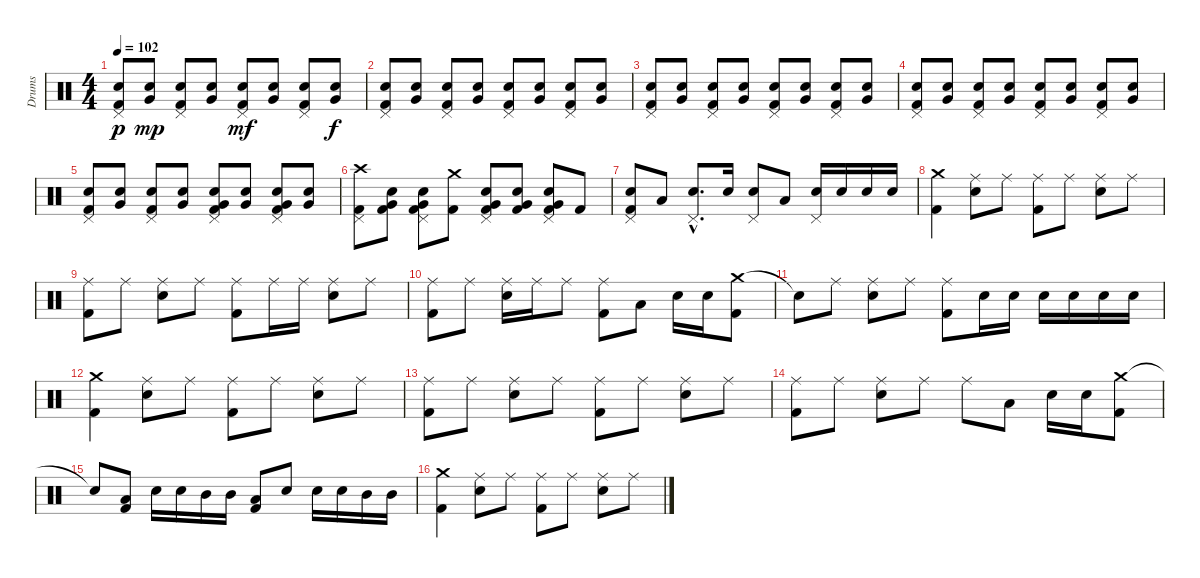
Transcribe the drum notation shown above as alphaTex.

\track ("Drums" "Drums") {instrument percussion}
\staff {score}
\articulation defaults
\ts (4 4)
\tempo 102
\clef neutral
\ks c
("Pedal Hi-Hat (hit)" "Snare (hit) 2" "Kick (hit) 2").8{dy p} ("Snare (hit) 2" "Very Low Tom (hit)").8{dy mp} ("Pedal Hi-Hat (hit)" "Snare (hit) 2" "Kick (hit) 2").8 ("Snare (hit) 2" "Very Low Tom (hit)").8 ("Pedal Hi-Hat (hit)" "Snare (hit) 2" "Kick (hit) 2").8{dy mf} ("Snare (hit) 2" "Very Low Tom (hit)").8 ("Pedal Hi-Hat (hit)" "Snare (hit) 2" "Kick (hit) 2").8 ("Snare (hit) 2" "Very Low Tom (hit)").8{dy f} |
("Pedal Hi-Hat (hit)" "Snare (hit) 2" "Kick (hit) 2").8 ("Snare (hit) 2" "Very Low Tom (hit)").8 ("Pedal Hi-Hat (hit)" "Snare (hit) 2" "Kick (hit) 2").8 ("Snare (hit) 2" "Very Low Tom (hit)").8 ("Pedal Hi-Hat (hit)" "Snare (hit) 2" "Kick (hit) 2").8 ("Snare (hit) 2" "Very Low Tom (hit)").8 ("Pedal Hi-Hat (hit)" "Snare (hit) 2" "Kick (hit) 2").8 ("Snare (hit) 2" "Very Low Tom (hit)").8 |
("Pedal Hi-Hat (hit)" "Snare (hit) 2" "Kick (hit) 2").8 ("Snare (hit) 2" "Very Low Tom (hit)").8 ("Pedal Hi-Hat (hit)" "Snare (hit) 2" "Kick (hit) 2").8 ("Snare (hit) 2" "Very Low Tom (hit)").8 ("Pedal Hi-Hat (hit)" "Snare (hit) 2" "Kick (hit) 2").8 ("Snare (hit) 2" "Very Low Tom (hit)").8 ("Pedal Hi-Hat (hit)" "Snare (hit) 2" "Kick (hit) 2").8 ("Snare (hit) 2" "Very Low Tom (hit)").8 |
("Pedal Hi-Hat (hit)" "Snare (hit) 2" "Kick (hit) 2").8 ("Snare (hit) 2" "Very Low Tom (hit)").8 ("Pedal Hi-Hat (hit)" "Snare (hit) 2" "Kick (hit) 2").8 ("Snare (hit) 2" "Very Low Tom (hit)").8 ("Pedal Hi-Hat (hit)" "Snare (hit) 2" "Kick (hit) 2").8 ("Snare (hit) 2" "Very Low Tom (hit)").8 ("Pedal Hi-Hat (hit)" "Snare (hit) 2" "Kick (hit) 2").8 ("Snare (hit) 2" "Very Low Tom (hit)").8 |
("Pedal Hi-Hat (hit)" "Snare (hit) 2" "Kick (hit) 2").8 ("Snare (hit) 2" "Very Low Tom (hit)").8 ("Pedal Hi-Hat (hit)" "Snare (hit) 2" "Kick (hit) 2").8 ("Snare (hit) 2" "Very Low Tom (hit)").8 ("Pedal Hi-Hat (hit)" "Snare (hit) 2" "Very Low Tom (hit)" "Kick (hit) 2").8 ("Snare (hit) 2" "Very Low Tom (hit)").8 ("Pedal Hi-Hat (hit)" "Snare (hit) 2" "Very Low Tom (hit)" "Kick (hit) 2").8 ("Snare (hit) 2" "Very Low Tom (hit)").8 |
("Crash high (hit)" "Pedal Hi-Hat (hit)" "Kick (hit) 2").8 ("Snare (hit) 2" "Very Low Tom (hit)" "Kick (hit) 2").8 ("Pedal Hi-Hat (hit)" "Snare (hit) 2" "Very Low Tom (hit)" "Kick (hit) 2").8 ("Crash medium (hit)" "Kick (hit) 2").8 ("Pedal Hi-Hat (hit)" "Snare (hit) 2" "Very Low Tom (hit)" "Kick (hit) 2").8 ("Snare (hit) 2" "Very Low Tom (hit)" "Kick (hit) 2").8 ("Pedal Hi-Hat (hit)" "Snare (hit) 2" "Very Low Tom (hit)" "Kick (hit) 2").8 "Kick (hit) 2".8 |
("Pedal Hi-Hat (hit)" "Snare (hit) 2" "Kick (hit) 2").8 "Low Tom (hit)".8 ("Pedal Hi-Hat (hit)"{hac} "Snare (hit) 2"{hac}).8{d} "Snare (hit) 2".16 ("Pedal Hi-Hat (hit)" "Snare (hit) 2").8 "Low Tom (hit)".8 ("Pedal Hi-Hat (hit)" "Snare (hit) 2").16 "Snare (hit) 2".16 "Snare (hit) 2".16 "Snare (hit) 2".16 |
("Crash medium (hit)" "Kick (hit) 2").4 ("Ride (middle)" "Snare (hit) 2").8 "Ride (middle)".8 ("Ride (middle)" "Kick (hit) 2").8 "Ride (middle)".8 ("Ride (middle)" "Snare (hit) 2").8 "Ride (middle)".8 |
("Ride (middle)" "Kick (hit) 2").8 "Ride (middle)".8 ("Ride (middle)" "Snare (hit) 2").8 "Ride (middle)".8 ("Ride (middle)" "Kick (hit) 2").8 "Ride (middle)".16 "Ride (middle)".16 ("Ride (middle)" "Snare (hit) 2").8 "Ride (middle)".8 |
("Ride (middle)" "Kick (hit) 2").8 "Ride (middle)".8 ("Ride (middle)" "Snare (hit) 2").16 "Ride (middle)".16 "Ride (middle)".8 ("Ride (middle)" "Kick (hit) 2").8 "Low Tom (hit)".8 "Snare (hit) 2".16 "Snare (hit) 2".16 ("Crash medium (hit)" "Kick (hit) 2").8 |
"Snare (hit)"{t}.8 "Ride (middle)".8 ("Ride (middle)" "Snare (hit) 2").8 "Ride (middle)".8 ("Ride (middle)" "Kick (hit) 2").8 "Snare (hit) 2".16 "Snare (hit) 2".16 "Snare (hit) 2".16 "Snare (hit) 2".16 "Snare (hit) 2".16 "Snare (hit) 2".16 |
("Crash medium (hit)" "Kick (hit) 2").4 ("Ride (middle)" "Snare (hit) 2").8 "Ride (middle)".8 ("Ride (middle)" "Kick (hit) 2").8 "Ride (middle)".8 ("Ride (middle)" "Snare (hit) 2").8 "Ride (middle)".8 |
("Ride (middle)" "Kick (hit) 2").8 "Ride (middle)".8 ("Ride (middle)" "Snare (hit) 2").8 "Ride (middle)".8 ("Ride (middle)" "Kick (hit) 2").8 "Ride (middle)".8 ("Ride (middle)" "Snare (hit) 2").8 "Ride (middle)".8 |
("Ride (middle)" "Kick (hit) 2").8 "Ride (middle)".8 ("Ride (middle)" "Snare (hit) 2").8 "Ride (middle)".8 "Ride (middle)".8 "Low Tom (hit)".8 "Snare (hit) 2".16 "Snare (hit) 2".16 ("Crash medium (hit)" "Kick (hit) 2").8 |
"Snare (hit)"{t}.8 ("Low Tom (hit)" "Kick (hit) 2").8 "Snare (hit) 2".16 "Snare (hit) 2".16 "Mid Tom (hit)".16 "Mid Tom (hit)".16 ("Low Tom (hit)" "Kick (hit) 2").8 "Snare (hit) 2".8 "Snare (hit) 2".16 "Snare (hit) 2".16 "Mid Tom (hit)".16 "Mid Tom (hit)".16 |
("Crash medium (hit)" "Kick (hit) 2").4 ("Ride (middle)" "Snare (hit) 2").8 "Ride (middle)".8 ("Ride (middle)" "Kick (hit) 2").8 "Ride (middle)".8 ("Ride (middle)" "Snare (hit) 2").8 "Ride (middle)".8
